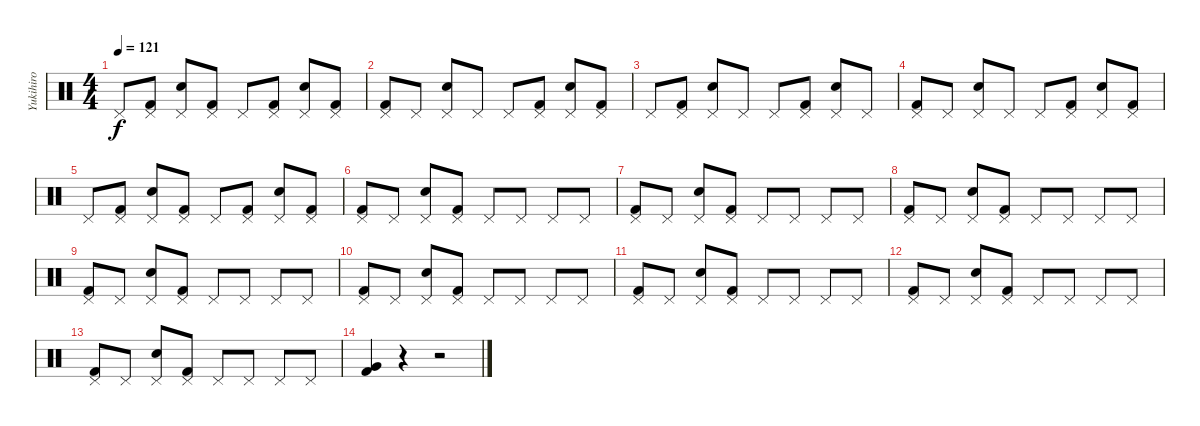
\track ("Yukihiro" "Yukihiro") {instrument percussion}
\staff {score}
\articulation defaults
\ts (4 4)
\tempo 121
\clef neutral
\ks c "Pedal Hi-Hat (hit)".8{dy f}
("Pedal Hi-Hat (hit)" "Kick (hit) 2").8 ("Pedal Hi-Hat (hit)" "Electric Snare (hit)").8 ("Pedal Hi-Hat (hit)" "Kick (hit) 2").8 "Pedal Hi-Hat (hit)".8 ("Pedal Hi-Hat (hit)" "Kick (hit) 2").8 ("Pedal Hi-Hat (hit)" "Electric Snare (hit)").8 ("Pedal Hi-Hat (hit)" "Kick (hit) 2").8 |
("Pedal Hi-Hat (hit)" "Kick (hit) 2").8 "Pedal Hi-Hat (hit)".8 ("Pedal Hi-Hat (hit)" "Electric Snare (hit)").8 "Pedal Hi-Hat (hit)".8 "Pedal Hi-Hat (hit)".8 ("Pedal Hi-Hat (hit)" "Kick (hit) 2").8 ("Pedal Hi-Hat (hit)" "Electric Snare (hit)").8 ("Pedal Hi-Hat (hit)" "Kick (hit) 2").8 |
"Pedal Hi-Hat (hit)".8 ("Pedal Hi-Hat (hit)" "Kick (hit) 2").8 ("Pedal Hi-Hat (hit)" "Electric Snare (hit)").8 "Pedal Hi-Hat (hit)".8 "Pedal Hi-Hat (hit)".8 ("Pedal Hi-Hat (hit)" "Kick (hit) 2").8 ("Pedal Hi-Hat (hit)" "Electric Snare (hit)").8 "Pedal Hi-Hat (hit)".8 |
("Pedal Hi-Hat (hit)" "Kick (hit) 2").8 "Pedal Hi-Hat (hit)".8 ("Pedal Hi-Hat (hit)" "Electric Snare (hit)").8 "Pedal Hi-Hat (hit)".8 "Pedal Hi-Hat (hit)".8 ("Pedal Hi-Hat (hit)" "Kick (hit) 2").8 ("Pedal Hi-Hat (hit)" "Electric Snare (hit)").8 ("Pedal Hi-Hat (hit)" "Kick (hit) 2").8 |
"Pedal Hi-Hat (hit)".8 ("Pedal Hi-Hat (hit)" "Kick (hit) 2").8 ("Pedal Hi-Hat (hit)" "Electric Snare (hit)").8 ("Pedal Hi-Hat (hit)" "Kick (hit) 2").8 "Pedal Hi-Hat (hit)".8 ("Pedal Hi-Hat (hit)" "Kick (hit) 2").8 ("Pedal Hi-Hat (hit)" "Electric Snare (hit)").8 ("Pedal Hi-Hat (hit)" "Kick (hit) 2").8 |
("Pedal Hi-Hat (hit)" "Kick (hit) 2").8 "Pedal Hi-Hat (hit)".8 ("Pedal Hi-Hat (hit)" "Electric Snare (hit)").8 ("Pedal Hi-Hat (hit)" "Kick (hit) 2").8 "Pedal Hi-Hat (hit)".8 "Pedal Hi-Hat (hit)".8 "Pedal Hi-Hat (hit)".8 "Pedal Hi-Hat (hit)".8 |
("Pedal Hi-Hat (hit)" "Kick (hit) 2").8 "Pedal Hi-Hat (hit)".8 ("Pedal Hi-Hat (hit)" "Electric Snare (hit)").8 ("Pedal Hi-Hat (hit)" "Kick (hit) 2").8 "Pedal Hi-Hat (hit)".8 "Pedal Hi-Hat (hit)".8 "Pedal Hi-Hat (hit)".8 "Pedal Hi-Hat (hit)".8 |
("Pedal Hi-Hat (hit)" "Kick (hit) 2").8 "Pedal Hi-Hat (hit)".8 ("Pedal Hi-Hat (hit)" "Electric Snare (hit)").8 ("Pedal Hi-Hat (hit)" "Kick (hit) 2").8 "Pedal Hi-Hat (hit)".8 "Pedal Hi-Hat (hit)".8 "Pedal Hi-Hat (hit)".8 "Pedal Hi-Hat (hit)".8 |
("Pedal Hi-Hat (hit)" "Kick (hit) 2").8 "Pedal Hi-Hat (hit)".8 ("Pedal Hi-Hat (hit)" "Electric Snare (hit)").8 ("Pedal Hi-Hat (hit)" "Kick (hit) 2").8 "Pedal Hi-Hat (hit)".8 "Pedal Hi-Hat (hit)".8 "Pedal Hi-Hat (hit)".8 "Pedal Hi-Hat (hit)".8 |
("Pedal Hi-Hat (hit)" "Kick (hit) 2").8 "Pedal Hi-Hat (hit)".8 ("Pedal Hi-Hat (hit)" "Electric Snare (hit)").8 ("Pedal Hi-Hat (hit)" "Kick (hit) 2").8 "Pedal Hi-Hat (hit)".8 "Pedal Hi-Hat (hit)".8 "Pedal Hi-Hat (hit)".8 "Pedal Hi-Hat (hit)".8 |
("Pedal Hi-Hat (hit)" "Kick (hit) 2").8 "Pedal Hi-Hat (hit)".8 ("Pedal Hi-Hat (hit)" "Electric Snare (hit)").8 ("Pedal Hi-Hat (hit)" "Kick (hit) 2").8 "Pedal Hi-Hat (hit)".8 "Pedal Hi-Hat (hit)".8 "Pedal Hi-Hat (hit)".8 "Pedal Hi-Hat (hit)".8 |
("Pedal Hi-Hat (hit)" "Kick (hit) 2").8 "Pedal Hi-Hat (hit)".8 ("Pedal Hi-Hat (hit)" "Electric Snare (hit)").8 ("Pedal Hi-Hat (hit)" "Kick (hit) 2").8 "Pedal Hi-Hat (hit)".8 "Pedal Hi-Hat (hit)".8 "Pedal Hi-Hat (hit)".8 "Pedal Hi-Hat (hit)".8 |
("Pedal Hi-Hat (hit)" "Kick (hit) 2").8 "Pedal Hi-Hat (hit)".8 ("Pedal Hi-Hat (hit)" "Electric Snare (hit)").8 ("Pedal Hi-Hat (hit)" "Kick (hit) 2").8 "Pedal Hi-Hat (hit)".8 "Pedal Hi-Hat (hit)".8 "Pedal Hi-Hat (hit)".8 "Pedal Hi-Hat (hit)".8 |
("Very Low Tom (hit)" "Kick (hit) 2").4 r.4 r.2
